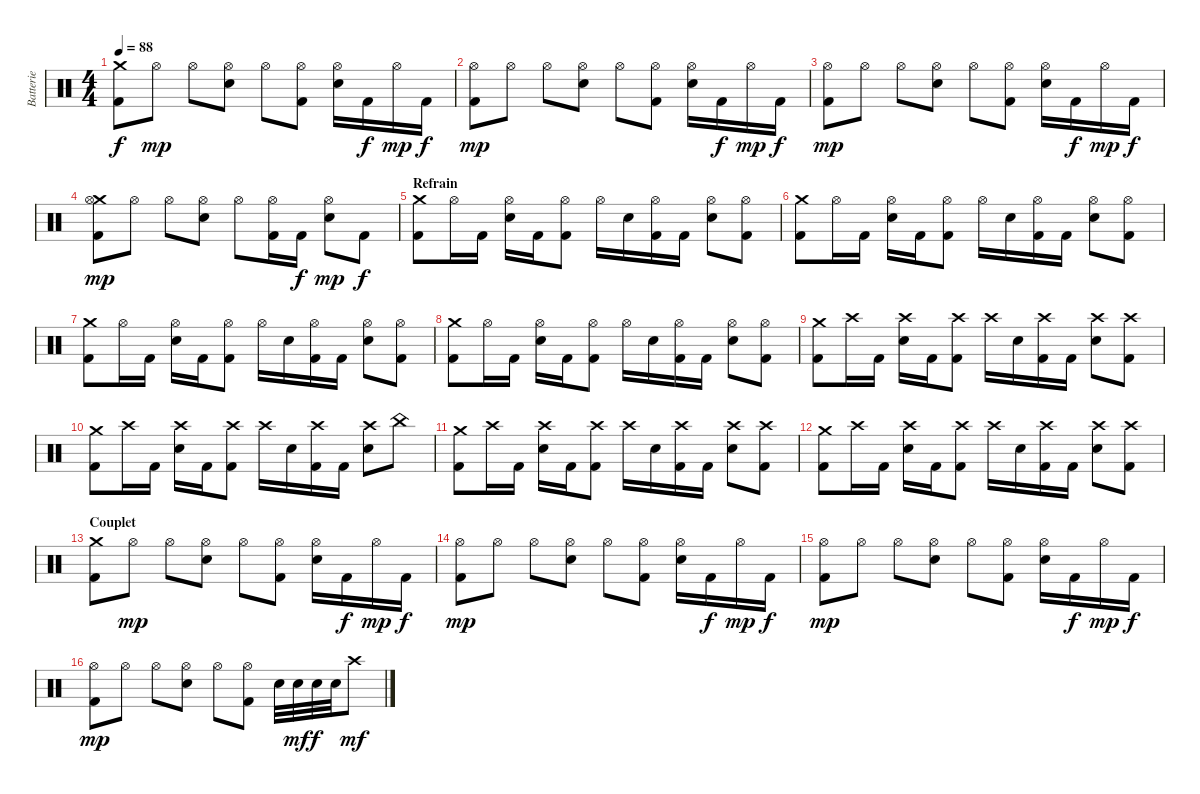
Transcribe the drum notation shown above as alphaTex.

\track ("Batterie" "Batterie") {instrument percussion}
\staff {score}
\articulation defaults
\ts (4 4)
\tempo 88
\clef neutral
\ks c
("Crash medium (hit)" "Kick (hit) 2").8{dy f} "Hi-Hat (open)".8{dy mp} "Hi-Hat (open)".8 ("Hi-Hat (open)" "Electric Snare (hit)").8 "Hi-Hat (open)".8 ("Hi-Hat (open)" "Kick (hit) 2").8 ("Hi-Hat (open)" "Electric Snare (hit)").16 "Kick (hit) 2".16{dy f} "Hi-Hat (open)".16{dy mp} "Kick (hit) 2".16{dy f} |
("Hi-Hat (open)" "Kick (hit) 2").8{dy mp} "Hi-Hat (open)".8 "Hi-Hat (open)".8 ("Hi-Hat (open)" "Electric Snare (hit)").8 "Hi-Hat (open)".8 ("Hi-Hat (open)" "Kick (hit) 2").8 ("Hi-Hat (open)" "Electric Snare (hit)").16 "Kick (hit) 2".16{dy f} "Hi-Hat (open)".16{dy mp} "Kick (hit) 2".16{dy f} |
("Hi-Hat (open)" "Kick (hit) 2").8{dy mp} "Hi-Hat (open)".8 "Hi-Hat (open)".8 ("Hi-Hat (open)" "Electric Snare (hit)").8 "Hi-Hat (open)".8 ("Hi-Hat (open)" "Kick (hit) 2").8 ("Hi-Hat (open)" "Electric Snare (hit)").16 "Kick (hit) 2".16{dy f} "Hi-Hat (open)".16{dy mp} "Kick (hit) 2".16{dy f} |
("Crash medium (hit)" "Hi-Hat (open)" "Kick (hit) 2").8{dy mp} "Hi-Hat (open)".8 "Hi-Hat (open)".8 ("Hi-Hat (open)" "Electric Snare (hit)").8 "Hi-Hat (open)".8 ("Hi-Hat (open)" "Kick (hit) 2").16 "Kick (hit) 2".16{dy f} ("Hi-Hat (open)" "Electric Snare (hit)").8{dy mp} "Kick (hit) 2".8{dy f} |
\section ("" "Refrain")
("Crash medium (hit)" "Kick (hit) 2").8 "Hi-Hat (open)".16 "Kick (hit) 2".16 ("Hi-Hat (open)" "Electric Snare (hit)").16 "Kick (hit) 2".16 ("Hi-Hat (open)" "Kick (hit) 2").8 "Hi-Hat (open)".16 "Electric Snare (hit)".16 ("Hi-Hat (open)" "Kick (hit) 2").16 "Kick (hit) 2".16 ("Hi-Hat (open)" "Electric Snare (hit)").8 ("Hi-Hat (open)" "Kick (hit) 2").8 |
("Crash medium (hit)" "Kick (hit) 2").8 "Hi-Hat (open)".16 "Kick (hit) 2".16 ("Hi-Hat (open)" "Electric Snare (hit)").16 "Kick (hit) 2".16 ("Hi-Hat (open)" "Kick (hit) 2").8 "Hi-Hat (open)".16 "Electric Snare (hit)".16 ("Hi-Hat (open)" "Kick (hit) 2").16 "Kick (hit) 2".16 ("Hi-Hat (open)" "Electric Snare (hit)").8 ("Hi-Hat (open)" "Kick (hit) 2").8 |
("Crash medium (hit)" "Kick (hit) 2").8 "Hi-Hat (open)".16 "Kick (hit) 2".16 ("Hi-Hat (open)" "Electric Snare (hit)").16 "Kick (hit) 2".16 ("Hi-Hat (open)" "Kick (hit) 2").8 "Hi-Hat (open)".16 "Electric Snare (hit)".16 ("Hi-Hat (open)" "Kick (hit) 2").16 "Kick (hit) 2".16 ("Hi-Hat (open)" "Electric Snare (hit)").8 ("Hi-Hat (open)" "Kick (hit) 2").8 |
("Crash medium (hit)" "Kick (hit) 2").8 "Hi-Hat (open)".16 "Kick (hit) 2".16 ("Hi-Hat (open)" "Electric Snare (hit)").16 "Kick (hit) 2".16 ("Hi-Hat (open)" "Kick (hit) 2").8 "Hi-Hat (open)".16 "Electric Snare (hit)".16 ("Hi-Hat (open)" "Kick (hit) 2").16 "Kick (hit) 2".16 ("Hi-Hat (open)" "Electric Snare (hit)").8 ("Hi-Hat (open)" "Kick (hit) 2").8 |
("Crash medium (hit)" "Kick (hit) 2").8 "Crash high (hit)".16 "Kick (hit) 2".16 ("Crash high (hit)" "Electric Snare (hit)").16 "Kick (hit) 2".16 ("Crash high (hit)" "Kick (hit) 2").8 "Crash high (hit)".16 "Electric Snare (hit)".16 ("Crash high (hit)" "Kick (hit) 2").16 "Kick (hit) 2".16 ("Crash high (hit)" "Electric Snare (hit)").8 ("Crash high (hit)" "Kick (hit) 2").8 |
("Crash medium (hit)" "Kick (hit) 2").8 "Crash high (hit)".16 "Kick (hit) 2".16 ("Crash high (hit)" "Electric Snare (hit)").16 "Kick (hit) 2".16 ("Crash high (hit)" "Kick (hit) 2").8 "Crash high (hit)".16 "Electric Snare (hit)".16 ("Crash high (hit)" "Kick (hit) 2").16 "Kick (hit) 2".16 ("Crash high (hit)" "Electric Snare (hit)").8 "China (hit)".8 |
("Crash medium (hit)" "Kick (hit) 2").8 "Crash high (hit)".16 "Kick (hit) 2".16 ("Crash high (hit)" "Electric Snare (hit)").16 "Kick (hit) 2".16 ("Crash high (hit)" "Kick (hit) 2").8 "Crash high (hit)".16 "Electric Snare (hit)".16 ("Crash high (hit)" "Kick (hit) 2").16 "Kick (hit) 2".16 ("Crash high (hit)" "Electric Snare (hit)").8 ("Crash high (hit)" "Kick (hit) 2").8 |
("Crash medium (hit)" "Kick (hit) 2").8 "Crash high (hit)".16 "Kick (hit) 2".16 ("Crash high (hit)" "Electric Snare (hit)").16 "Kick (hit) 2".16 ("Crash high (hit)" "Kick (hit) 2").8 "Crash high (hit)".16 "Electric Snare (hit)".16 ("Crash high (hit)" "Kick (hit) 2").16 "Kick (hit) 2".16 ("Crash high (hit)" "Electric Snare (hit)").8 ("Crash high (hit)" "Kick (hit) 2").8 |
\section ("" "Couplet")
("Crash medium (hit)" "Kick (hit) 2").8 "Hi-Hat (open)".8{dy mp} "Hi-Hat (open)".8 ("Hi-Hat (open)" "Electric Snare (hit)").8 "Hi-Hat (open)".8 ("Hi-Hat (open)" "Kick (hit) 2").8 ("Hi-Hat (open)" "Electric Snare (hit)").16 "Kick (hit) 2".16{dy f} "Hi-Hat (open)".16{dy mp} "Kick (hit) 2".16{dy f} |
("Hi-Hat (open)" "Kick (hit) 2").8{dy mp} "Hi-Hat (open)".8 "Hi-Hat (open)".8 ("Hi-Hat (open)" "Electric Snare (hit)").8 "Hi-Hat (open)".8 ("Hi-Hat (open)" "Kick (hit) 2").8 ("Hi-Hat (open)" "Electric Snare (hit)").16 "Kick (hit) 2".16{dy f} "Hi-Hat (open)".16{dy mp} "Kick (hit) 2".16{dy f} |
("Hi-Hat (open)" "Kick (hit) 2").8{dy mp} "Hi-Hat (open)".8 "Hi-Hat (open)".8 ("Hi-Hat (open)" "Electric Snare (hit)").8 "Hi-Hat (open)".8 ("Hi-Hat (open)" "Kick (hit) 2").8 ("Hi-Hat (open)" "Electric Snare (hit)").16 "Kick (hit) 2".16{dy f} "Hi-Hat (open)".16{dy mp} "Kick (hit) 2".16{dy f} |
("Hi-Hat (open)" "Kick (hit) 2").8{dy mp} "Hi-Hat (open)".8 "Hi-Hat (open)".8 ("Hi-Hat (open)" "Electric Snare (hit)").8 "Hi-Hat (open)".8 ("Hi-Hat (open)" "Kick (hit) 2").8 "Electric Snare (hit)".32 "Electric Snare (hit)".32{dy mf} "Electric Snare (hit)".32{dy f} "Electric Snare (hit)".32 "Crash high (hit)".8{dy mf}
